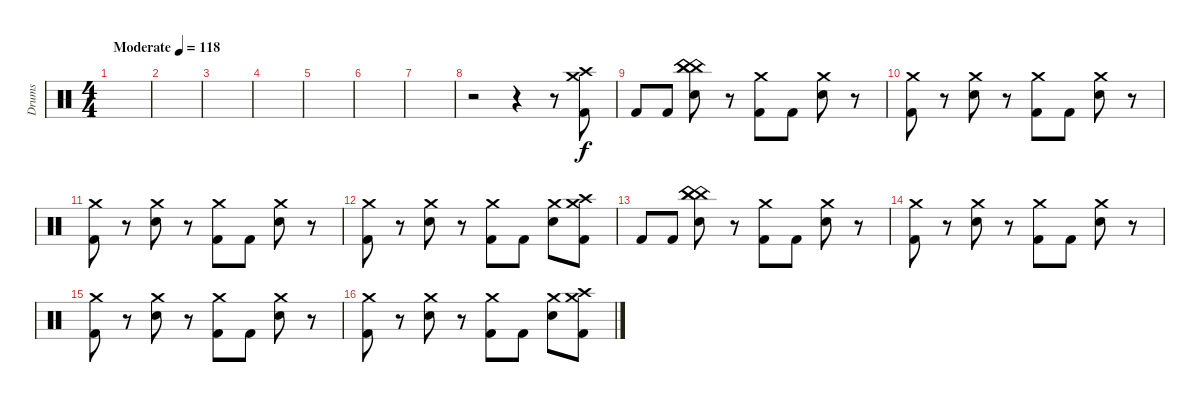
\track ("Drums" "Drums") {instrument percussion}
\staff {score}
\articulation defaults
\ts (4 4)
\tempo (118 "Moderate")
\clef neutral
\ks c
|
|
|
|
|
|
|
r.2 r.4 r.8 ("Crash medium (hit)" "Crash high (hit)" "Kick (hit) 2").8 |
"Kick (hit) 2".8 "Kick (hit) 2".8 ("China (hit)" "China (hit)" "China (hit)" "Electric Snare (hit)").8 r.8 ("Crash medium (hit)" "Kick (hit) 2").8 "Kick (hit) 2".8 ("Crash medium (hit)" "Electric Snare (hit)").8 r.8 |
("Crash medium (hit)" "Kick (hit) 2").8 r.8 ("Crash medium (hit)" "Electric Snare (hit)").8 r.8 ("Crash medium (hit)" "Kick (hit) 2").8 "Kick (hit) 2".8 ("Crash medium (hit)" "Electric Snare (hit)").8 r.8 |
("Crash medium (hit)" "Kick (hit) 2").8 r.8 ("Crash medium (hit)" "Electric Snare (hit)").8 r.8 ("Crash medium (hit)" "Kick (hit) 2").8 "Kick (hit) 2".8 ("Crash medium (hit)" "Electric Snare (hit)").8 r.8 |
("Crash medium (hit)" "Kick (hit) 2").8 r.8 ("Crash medium (hit)" "Electric Snare (hit)").8 r.8 ("Crash medium (hit)" "Kick (hit) 2").8 "Kick (hit) 2".8 ("Crash medium (hit)" "Electric Snare (hit)").8 ("Crash medium (hit)" "Crash high (hit)" "Kick (hit) 2").8 |
"Kick (hit) 2".8 "Kick (hit) 2".8 ("China (hit)" "China (hit)" "China (hit)" "Electric Snare (hit)").8 r.8 ("Crash medium (hit)" "Kick (hit) 2").8 "Kick (hit) 2".8 ("Crash medium (hit)" "Electric Snare (hit)").8 r.8 |
("Crash medium (hit)" "Kick (hit) 2").8 r.8 ("Crash medium (hit)" "Electric Snare (hit)").8 r.8 ("Crash medium (hit)" "Kick (hit) 2").8 "Kick (hit) 2".8 ("Crash medium (hit)" "Electric Snare (hit)").8 r.8 |
("Crash medium (hit)" "Kick (hit) 2").8 r.8 ("Crash medium (hit)" "Electric Snare (hit)").8 r.8 ("Crash medium (hit)" "Kick (hit) 2").8 "Kick (hit) 2".8 ("Crash medium (hit)" "Electric Snare (hit)").8 r.8 |
("Crash medium (hit)" "Kick (hit) 2").8 r.8 ("Crash medium (hit)" "Electric Snare (hit)").8 r.8 ("Crash medium (hit)" "Kick (hit) 2").8 "Kick (hit) 2".8 ("Crash medium (hit)" "Electric Snare (hit)").8 ("Crash medium (hit)" "Crash high (hit)" "Kick (hit) 2").8
